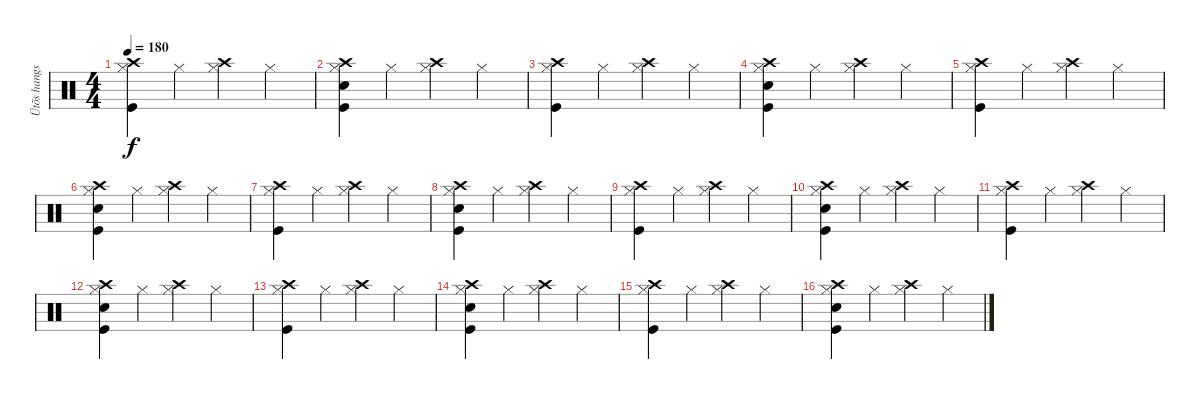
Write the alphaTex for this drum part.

\track ("Ütõs hangszer" "Ütõs hangs") {instrument percussion}
\staff {score}
\articulation defaults
\ts (4 4)
\tempo 180
\clef neutral
\ks c
("Hi-Hat (closed)" "Crash high (hit)" "Kick (hit)").4{dy f} "Hi-Hat (closed)".4 ("Hi-Hat (closed)" "Crash high (hit)").4 "Hi-Hat (closed)".4 |
("Hi-Hat (closed)" "Electric Snare (hit)" "Crash high (hit)" "Kick (hit)").4 "Hi-Hat (closed)".4 ("Hi-Hat (closed)" "Crash high (hit)").4 "Hi-Hat (closed)".4 |
("Hi-Hat (closed)" "Crash high (hit)" "Kick (hit)").4 "Hi-Hat (closed)".4 ("Hi-Hat (closed)" "Crash high (hit)").4 "Hi-Hat (closed)".4 |
("Hi-Hat (closed)" "Electric Snare (hit)" "Crash high (hit)" "Kick (hit)").4 "Hi-Hat (closed)".4 ("Hi-Hat (closed)" "Crash high (hit)").4 "Hi-Hat (closed)".4 |
("Hi-Hat (closed)" "Crash high (hit)" "Kick (hit)").4 "Hi-Hat (closed)".4 ("Hi-Hat (closed)" "Crash high (hit)").4 "Hi-Hat (closed)".4 |
("Hi-Hat (closed)" "Electric Snare (hit)" "Crash high (hit)" "Kick (hit)").4 "Hi-Hat (closed)".4 ("Hi-Hat (closed)" "Crash high (hit)").4 "Hi-Hat (closed)".4 |
("Hi-Hat (closed)" "Crash high (hit)" "Kick (hit)").4 "Hi-Hat (closed)".4 ("Hi-Hat (closed)" "Crash high (hit)").4 "Hi-Hat (closed)".4 |
("Hi-Hat (closed)" "Electric Snare (hit)" "Crash high (hit)" "Kick (hit)").4 "Hi-Hat (closed)".4 ("Hi-Hat (closed)" "Crash high (hit)").4 "Hi-Hat (closed)".4 |
("Hi-Hat (closed)" "Crash high (hit)" "Kick (hit)").4 "Hi-Hat (closed)".4 ("Hi-Hat (closed)" "Crash high (hit)").4 "Hi-Hat (closed)".4 |
("Hi-Hat (closed)" "Electric Snare (hit)" "Crash high (hit)" "Kick (hit)").4 "Hi-Hat (closed)".4 ("Hi-Hat (closed)" "Crash high (hit)").4 "Hi-Hat (closed)".4 |
("Hi-Hat (closed)" "Crash high (hit)" "Kick (hit)").4 "Hi-Hat (closed)".4 ("Hi-Hat (closed)" "Crash high (hit)").4 "Hi-Hat (closed)".4 |
("Hi-Hat (closed)" "Electric Snare (hit)" "Crash high (hit)" "Kick (hit)").4 "Hi-Hat (closed)".4 ("Hi-Hat (closed)" "Crash high (hit)").4 "Hi-Hat (closed)".4 |
("Hi-Hat (closed)" "Crash high (hit)" "Kick (hit)").4 "Hi-Hat (closed)".4 ("Hi-Hat (closed)" "Crash high (hit)").4 "Hi-Hat (closed)".4 |
("Hi-Hat (closed)" "Electric Snare (hit)" "Crash high (hit)" "Kick (hit)").4 "Hi-Hat (closed)".4 ("Hi-Hat (closed)" "Crash high (hit)").4 "Hi-Hat (closed)".4 |
("Hi-Hat (closed)" "Crash high (hit)" "Kick (hit)").4 "Hi-Hat (closed)".4 ("Hi-Hat (closed)" "Crash high (hit)").4 "Hi-Hat (closed)".4 |
("Hi-Hat (closed)" "Electric Snare (hit)" "Crash high (hit)" "Kick (hit)").4 "Hi-Hat (closed)".4 ("Hi-Hat (closed)" "Crash high (hit)").4 "Hi-Hat (closed)".4
